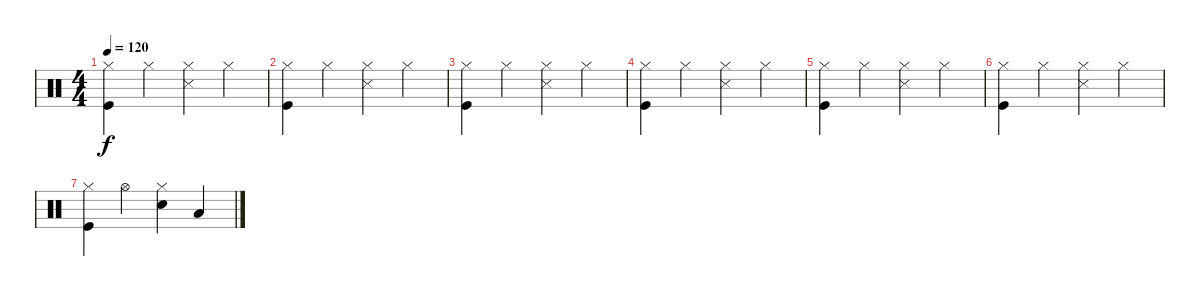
\track "" {instrument percussion}
\staff {score}
\articulation defaults
\ts (4 4)
\tempo 120
\clef neutral
\ks c
("Hi-Hat (closed)" "Kick (hit)").4{dy f} "Hi-Hat (closed)".4 ("Hi-Hat (closed)" "Snare (side stick) 3").4 "Hi-Hat (closed)".4 |
("Hi-Hat (closed)" "Kick (hit)").4 "Hi-Hat (closed)".4 ("Hi-Hat (closed)" "Snare (side stick) 3").4 "Hi-Hat (closed)".4 |
("Hi-Hat (closed)" "Kick (hit)").4 "Hi-Hat (closed)".4 ("Hi-Hat (closed)" "Snare (side stick) 3").4 "Hi-Hat (closed)".4 |
("Hi-Hat (closed)" "Kick (hit)").4 "Hi-Hat (closed)".4 ("Hi-Hat (closed)" "Snare (side stick) 3").4 "Hi-Hat (closed)".4 |
("Hi-Hat (closed)" "Kick (hit)").4 "Hi-Hat (closed)".4 ("Hi-Hat (closed)" "Snare (side stick) 3").4 "Hi-Hat (closed)".4 |
("Hi-Hat (closed)" "Kick (hit)").4 "Hi-Hat (closed)".4 ("Hi-Hat (closed)" "Snare (side stick) 3").4 "Hi-Hat (closed)".4 |
("Hi-Hat (closed)" "Kick (hit)").4 "Hi-Hat (open)".4 ("Hi-Hat (closed)" "Metronome (bell)").4 "Low Tom (hit)".4
